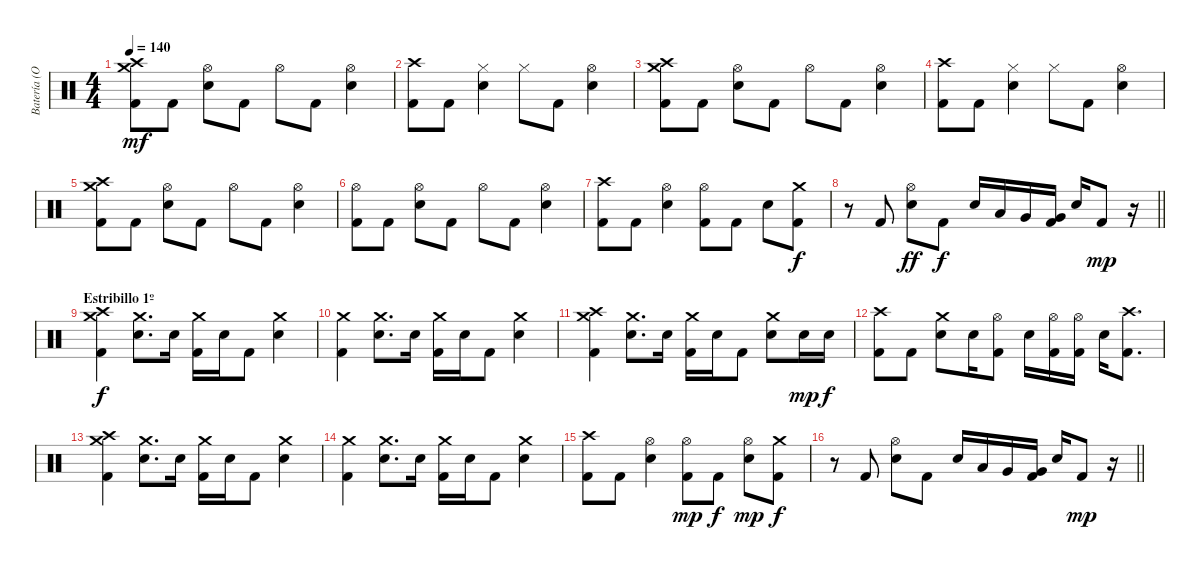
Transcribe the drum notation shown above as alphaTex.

\track ("Batería (Oxi)" "Batería (O") {instrument percussion}
\staff {score}
\articulation defaults
\ts (4 4)
\tempo 140
\clef neutral
\ks c
("Crash medium (hit)" "Crash high (hit)" "Kick (hit) 2").8{dy mf} "Kick (hit) 2".8 ("Hi-Hat (open)" "Electric Snare (hit)").8 "Kick (hit) 2".8 "Hi-Hat (open)".8 "Kick (hit) 2".8 ("Hi-Hat (open)" "Electric Snare (hit)").4 |
("Crash high (hit)" "Kick (hit) 2").8 "Kick (hit) 2".8 ("Hi-Hat (closed)" "Electric Snare (hit)").4 "Hi-Hat (closed)".8 "Kick (hit) 2".8 ("Hi-Hat (open)" "Electric Snare (hit)").4 |
("Crash medium (hit)" "Crash high (hit)" "Kick (hit) 2").8 "Kick (hit) 2".8 ("Hi-Hat (open)" "Electric Snare (hit)").8 "Kick (hit) 2".8 "Hi-Hat (open)".8 "Kick (hit) 2".8 ("Hi-Hat (open)" "Electric Snare (hit)").4 |
("Crash high (hit)" "Kick (hit) 2").8 "Kick (hit) 2".8 ("Hi-Hat (closed)" "Electric Snare (hit)").4 "Hi-Hat (closed)".8 "Kick (hit) 2".8 ("Hi-Hat (open)" "Electric Snare (hit)").4 |
("Crash medium (hit)" "Crash high (hit)" "Kick (hit) 2").8 "Kick (hit) 2".8 ("Hi-Hat (open)" "Electric Snare (hit)").8 "Kick (hit) 2".8 "Hi-Hat (open)".8 "Kick (hit) 2".8 ("Hi-Hat (open)" "Electric Snare (hit)").4 |
("Hi-Hat (open)" "Kick (hit) 2").8 "Kick (hit) 2".8 ("Hi-Hat (open)" "Electric Snare (hit)").8 "Kick (hit) 2".8 "Hi-Hat (open)".8 "Kick (hit) 2".8 ("Hi-Hat (open)" "Electric Snare (hit)").4 |
("Crash high (hit)" "Kick (hit) 2").8 "Kick (hit) 2".8 ("Hi-Hat (open)" "Electric Snare (hit)").4 ("Hi-Hat (open)" "Kick (hit) 2").8 "Kick (hit) 2".8 "Electric Snare (hit)".8 ("Crash medium (hit)" "Kick (hit) 2").8{dy f} |
\barLineRight lightlight
r.8 "Kick (hit) 2".8 ("Hi-Hat (open)" "Electric Snare (hit)").8{dy ff} "Kick (hit) 2".8{dy f} "Electric Snare (hit)".16 "Low Tom (hit)".16 "Very Low Tom (hit)".16 ("Very Low Tom (hit)" "Kick (hit) 2").16 "Electric Snare (hit)".16 "Kick (hit) 2".8{dy mp} r.16 |
\section ("" "Estribillo 1º")
("Crash medium (hit)" "Crash high (hit)" "Kick (hit) 2").4{dy f} ("Crash medium (hit)" "Electric Snare (hit)").8{d} "Electric Snare (hit)".16 ("Crash medium (hit)" "Kick (hit) 2").16 "Electric Snare (hit)".16 "Kick (hit) 2".8 ("Crash medium (hit)" "Electric Snare (hit)").4 |
("Crash medium (hit)" "Kick (hit) 2").4 ("Crash medium (hit)" "Electric Snare (hit)").8{d} "Electric Snare (hit)".16 ("Crash medium (hit)" "Kick (hit) 2").16 "Electric Snare (hit)".16 "Kick (hit) 2".8 ("Crash medium (hit)" "Electric Snare (hit)").4 |
("Crash medium (hit)" "Crash high (hit)" "Kick (hit) 2").4 ("Crash medium (hit)" "Electric Snare (hit)").8{d} "Electric Snare (hit)".16 ("Crash medium (hit)" "Kick (hit) 2").16 "Electric Snare (hit)".16 "Kick (hit) 2".8 ("Crash medium (hit)" "Electric Snare (hit)").8 "Electric Snare (hit)".16{dy mp} "Electric Snare (hit)".16{dy f} |
("Crash high (hit)" "Kick (hit) 2").8 "Kick (hit) 2".8 ("Crash medium (hit)" "Electric Snare (hit)").8 "Electric Snare (hit)".16 ("Hi-Hat (open)" "Kick (hit) 2").8 "Electric Snare (hit)".16 ("Hi-Hat (open)" "Kick (hit) 2").16 ("Hi-Hat (open)" "Kick (hit) 2").16 "Electric Snare (hit)".16 ("Crash high (hit)" "Kick (hit) 2").8{d} |
("Crash medium (hit)" "Crash high (hit)" "Kick (hit) 2").4 ("Crash medium (hit)" "Electric Snare (hit)").8{d} "Electric Snare (hit)".16 ("Crash medium (hit)" "Kick (hit) 2").16 "Electric Snare (hit)".16 "Kick (hit) 2".8 ("Crash medium (hit)" "Electric Snare (hit)").4 |
("Crash medium (hit)" "Kick (hit) 2").4 ("Crash medium (hit)" "Electric Snare (hit)").8{d} "Electric Snare (hit)".16 ("Crash medium (hit)" "Kick (hit) 2").16 "Electric Snare (hit)".16 "Kick (hit) 2".8 ("Crash medium (hit)" "Electric Snare (hit)").4 |
("Crash high (hit)" "Kick (hit) 2").8 "Kick (hit) 2".8 ("Hi-Hat (open)" "Electric Snare (hit)").4 ("Hi-Hat (open)" "Kick (hit) 2").8{dy mp} "Kick (hit) 2".8{dy f} ("Hi-Hat (open)" "Electric Snare (hit)").8{dy mp} ("Crash medium (hit)" "Kick (hit) 2").8{dy f} |
\barLineRight lightlight
r.8 "Kick (hit) 2".8 ("Hi-Hat (open)" "Electric Snare (hit)").8 "Kick (hit) 2".8 "Electric Snare (hit)".16 "Low Tom (hit)".16 "Very Low Tom (hit)".16 ("Very Low Tom (hit)" "Kick (hit) 2").16 "Electric Snare (hit)".16 "Kick (hit) 2".8{dy mp} r.16
